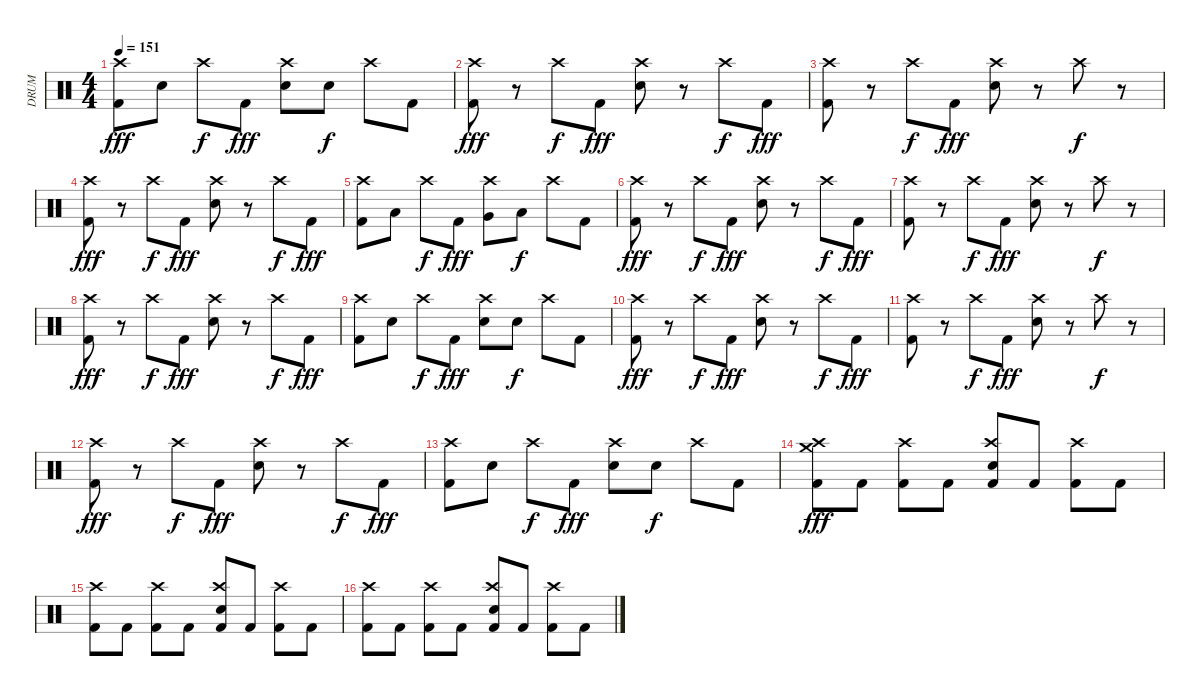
\track ("DRUM" "DRUM") {instrument percussion}
\staff {score}
\articulation defaults
\ts (4 4)
\tempo 151
\clef neutral
\ks c
("Kick (hit) 2" "Crash high (hit)").8{dy fff} "Snare (hit) 2".8 "Crash high (hit)".8{dy f} "Kick (hit) 2".8{dy fff} ("Crash high (hit)" "Snare (hit) 2").8 "Snare (hit) 2".8{dy f} "Crash high (hit)".8 "Kick (hit) 2".8 |
("Kick (hit) 2" "Crash high (hit)").8{dy fff} r.8 "Crash high (hit)".8{dy f} "Kick (hit) 2".8{dy fff} ("Crash high (hit)" "Snare (hit) 2").8 r.8 "Crash high (hit)".8{dy f} "Kick (hit) 2".8{dy fff} |
("Kick (hit) 2" "Crash high (hit)").8 r.8 "Crash high (hit)".8{dy f} "Kick (hit) 2".8{dy fff} ("Crash high (hit)" "Snare (hit) 2").8 r.8 "Crash high (hit)".8{dy f} r.8 |
("Kick (hit) 2" "Crash high (hit)").8{dy fff} r.8 "Crash high (hit)".8{dy f} "Kick (hit) 2".8{dy fff} ("Crash high (hit)" "Snare (hit) 2").8 r.8 "Crash high (hit)".8{dy f} "Kick (hit) 2".8{dy fff} |
("Kick (hit) 2" "Crash high (hit)").8 "Low Tom (hit)".8 "Crash high (hit)".8{dy f} "Kick (hit) 2".8{dy fff} ("Very Low Tom (hit)" "Crash high (hit)").8 "Low Floor Tom (hit)".8{dy f} "Crash high (hit)".8 "Kick (hit) 2".8 |
("Kick (hit) 2" "Crash high (hit)").8{dy fff} r.8 "Crash high (hit)".8{dy f} "Kick (hit) 2".8{dy fff} ("Crash high (hit)" "Snare (hit) 2").8 r.8 "Crash high (hit)".8{dy f} "Kick (hit) 2".8{dy fff} |
("Kick (hit) 2" "Crash high (hit)").8 r.8 "Crash high (hit)".8{dy f} "Kick (hit) 2".8{dy fff} ("Crash high (hit)" "Snare (hit) 2").8 r.8 "Crash high (hit)".8{dy f} r.8 |
("Kick (hit) 2" "Crash high (hit)").8{dy fff} r.8 "Crash high (hit)".8{dy f} "Kick (hit) 2".8{dy fff} ("Crash high (hit)" "Snare (hit) 2").8 r.8 "Crash high (hit)".8{dy f} "Kick (hit) 2".8{dy fff} |
("Kick (hit) 2" "Crash high (hit)").8 "Snare (hit) 2".8 "Crash high (hit)".8{dy f} "Kick (hit) 2".8{dy fff} ("Crash high (hit)" "Snare (hit) 2").8 "Snare (hit) 2".8{dy f} "Crash high (hit)".8 "Kick (hit) 2".8 |
("Kick (hit) 2" "Crash high (hit)").8{dy fff} r.8 "Crash high (hit)".8{dy f} "Kick (hit) 2".8{dy fff} ("Crash high (hit)" "Snare (hit) 2").8 r.8 "Crash high (hit)".8{dy f} "Kick (hit) 2".8{dy fff} |
("Kick (hit) 2" "Crash high (hit)").8 r.8 "Crash high (hit)".8{dy f} "Kick (hit) 2".8{dy fff} ("Crash high (hit)" "Snare (hit) 2").8 r.8 "Crash high (hit)".8{dy f} r.8 |
("Kick (hit) 2" "Crash high (hit)").8{dy fff} r.8 "Crash high (hit)".8{dy f} "Kick (hit) 2".8{dy fff} ("Crash high (hit)" "Snare (hit) 2").8 r.8 "Crash high (hit)".8{dy f} "Kick (hit) 2".8{dy fff} |
("Kick (hit) 2" "Crash high (hit)").8 "Snare (hit) 2".8 "Crash high (hit)".8{dy f} "Kick (hit) 2".8{dy fff} ("Crash high (hit)" "Snare (hit) 2").8 "Snare (hit) 2".8{dy f} "Crash high (hit)".8 "Kick (hit) 2".8 |
("Crash medium (hit)" "Kick (hit) 2" "Crash high (hit)").8{dy fff} "Kick (hit) 2".8 ("Kick (hit) 2" "Crash high (hit)").8 "Kick (hit) 2".8 ("Kick (hit) 2" "Crash high (hit)" "Snare (hit) 2").8 "Kick (hit) 2".8 ("Kick (hit) 2" "Crash high (hit)").8 "Kick (hit) 2".8 |
("Kick (hit) 2" "Crash high (hit)").8 "Kick (hit) 2".8 ("Kick (hit) 2" "Crash high (hit)").8 "Kick (hit) 2".8 ("Snare (hit) 2" "Kick (hit) 2" "Crash high (hit)").8 "Kick (hit) 2".8 ("Kick (hit) 2" "Crash high (hit)").8 "Kick (hit) 2".8 |
("Kick (hit) 2" "Crash high (hit)").8 "Kick (hit) 2".8 ("Kick (hit) 2" "Crash high (hit)").8 "Kick (hit) 2".8 ("Kick (hit) 2" "Crash high (hit)" "Snare (hit) 2").8 "Kick (hit) 2".8 ("Kick (hit) 2" "Crash high (hit)").8 "Kick (hit) 2".8
